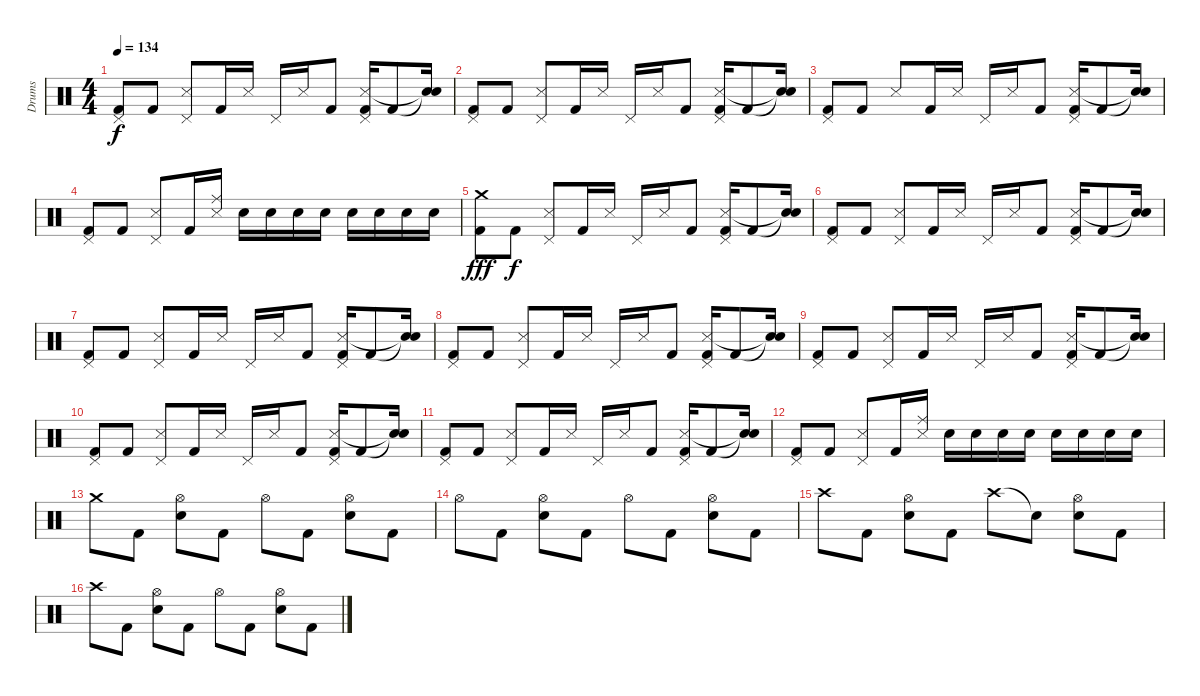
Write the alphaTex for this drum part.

\track ("Drums" "Drums") {instrument percussion}
\staff {score}
\articulation defaults
\ts (4 4)
\tempo 134
\clef neutral
\ks c
("Pedal Hi-Hat (hit)" "Kick (hit) 2").8{dy f} "Kick (hit) 2".8 ("Snare (side stick) 3" "Pedal Hi-Hat (hit)").8 "Kick (hit) 2".16 "Snare (side stick) 3".16 "Pedal Hi-Hat (hit)".16 "Snare (side stick) 3".16 "Kick (hit) 2".8 ("Pedal Hi-Hat (hit)" "Snare (side stick) 3" "Kick (hit) 2").16 "Kick (hit) 2".8 ("Snare (hit)"{t} "Snare (hit)"{t}).16 |
("Pedal Hi-Hat (hit)" "Kick (hit) 2").8 "Kick (hit) 2".8 ("Snare (side stick) 3" "Pedal Hi-Hat (hit)").8 "Kick (hit) 2".16 "Snare (side stick) 3".16 "Pedal Hi-Hat (hit)".16 "Snare (side stick) 3".16 "Kick (hit) 2".8 ("Pedal Hi-Hat (hit)" "Snare (side stick) 3" "Kick (hit) 2").16 "Kick (hit) 2".8 ("Snare (hit)"{t} "Snare (hit)"{t}).16 |
("Pedal Hi-Hat (hit)" "Kick (hit) 2").8 "Kick (hit) 2".8 "Snare (side stick) 3".8 "Kick (hit) 2".16 "Snare (side stick) 3".16 "Pedal Hi-Hat (hit)".16 "Snare (side stick) 3".16 "Kick (hit) 2".8 ("Pedal Hi-Hat (hit)" "Snare (side stick) 3" "Kick (hit) 2").16 "Kick (hit) 2".8 ("Snare (hit)"{t} "Snare (hit)"{t}).16 |
("Pedal Hi-Hat (hit)" "Kick (hit) 2").8 "Kick (hit) 2".8 ("Snare (side stick) 3" "Pedal Hi-Hat (hit)").8 "Kick (hit) 2".16 ("Snare (side stick) 3" "Ride (middle)").16 "Electric Snare (hit)".16 "Electric Snare (hit)".16 "Electric Snare (hit)".16 "Electric Snare (hit)".16 "Electric Snare (hit)".16 "Electric Snare (hit)".16 "Electric Snare (hit)".16 "Electric Snare (hit)".16 |
("Crash medium (hit)" "Kick (hit) 2").8{dy fff} "Kick (hit) 2".8{dy f} ("Snare (side stick) 3" "Pedal Hi-Hat (hit)").8 "Kick (hit) 2".16 "Snare (side stick) 3".16 "Pedal Hi-Hat (hit)".16 "Snare (side stick) 3".16 "Kick (hit) 2".8 ("Pedal Hi-Hat (hit)" "Snare (side stick) 3" "Kick (hit) 2").16 "Kick (hit) 2".8 ("Snare (hit)"{t} "Snare (hit)"{t}).16 |
("Pedal Hi-Hat (hit)" "Kick (hit) 2").8 "Kick (hit) 2".8 ("Snare (side stick) 3" "Pedal Hi-Hat (hit)").8 "Kick (hit) 2".16 "Snare (side stick) 3".16 "Pedal Hi-Hat (hit)".16 "Snare (side stick) 3".16 "Kick (hit) 2".8 ("Pedal Hi-Hat (hit)" "Snare (side stick) 3" "Kick (hit) 2").16 "Kick (hit) 2".8 ("Snare (hit)"{t} "Snare (hit)"{t}).16 |
("Pedal Hi-Hat (hit)" "Kick (hit) 2").8 "Kick (hit) 2".8 ("Snare (side stick) 3" "Pedal Hi-Hat (hit)").8 "Kick (hit) 2".16 "Snare (side stick) 3".16 "Pedal Hi-Hat (hit)".16 "Snare (side stick) 3".16 "Kick (hit) 2".8 ("Pedal Hi-Hat (hit)" "Snare (side stick) 3" "Kick (hit) 2").16 "Kick (hit) 2".8 ("Snare (hit)"{t} "Snare (hit)"{t}).16 |
("Pedal Hi-Hat (hit)" "Kick (hit) 2").8 "Kick (hit) 2".8 ("Snare (side stick) 3" "Pedal Hi-Hat (hit)").8 "Kick (hit) 2".16 "Snare (side stick) 3".16 "Pedal Hi-Hat (hit)".16 "Snare (side stick) 3".16 "Kick (hit) 2".8 ("Pedal Hi-Hat (hit)" "Snare (side stick) 3" "Kick (hit) 2").16 "Kick (hit) 2".8 ("Snare (hit)"{t} "Snare (hit)"{t}).16 |
("Pedal Hi-Hat (hit)" "Kick (hit) 2").8 "Kick (hit) 2".8 ("Snare (side stick) 3" "Pedal Hi-Hat (hit)").8 "Kick (hit) 2".16 "Snare (side stick) 3".16 "Pedal Hi-Hat (hit)".16 "Snare (side stick) 3".16 "Kick (hit) 2".8 ("Pedal Hi-Hat (hit)" "Snare (side stick) 3" "Kick (hit) 2").16 "Kick (hit) 2".8 ("Snare (hit)"{t} "Snare (hit)"{t}).16 |
("Pedal Hi-Hat (hit)" "Kick (hit) 2").8 "Kick (hit) 2".8 ("Snare (side stick) 3" "Pedal Hi-Hat (hit)").8 "Kick (hit) 2".16 "Snare (side stick) 3".16 "Pedal Hi-Hat (hit)".16 "Snare (side stick) 3".16 "Kick (hit) 2".8 ("Pedal Hi-Hat (hit)" "Snare (side stick) 3" "Kick (hit) 2").16 "Kick (hit) 2".8 ("Snare (hit)"{t} "Snare (hit)"{t}).16 |
("Pedal Hi-Hat (hit)" "Kick (hit) 2").8 "Kick (hit) 2".8 ("Snare (side stick) 3" "Pedal Hi-Hat (hit)").8 "Kick (hit) 2".16 "Snare (side stick) 3".16 "Pedal Hi-Hat (hit)".16 "Snare (side stick) 3".16 "Kick (hit) 2".8 ("Pedal Hi-Hat (hit)" "Snare (side stick) 3" "Kick (hit) 2").16 "Kick (hit) 2".8 ("Snare (hit)"{t} "Snare (hit)"{t}).16 |
("Pedal Hi-Hat (hit)" "Kick (hit) 2").8 "Kick (hit) 2".8 ("Snare (side stick) 3" "Pedal Hi-Hat (hit)").8 "Kick (hit) 2".16 ("Snare (side stick) 3" "Ride (middle)").16 "Electric Snare (hit)".16 "Electric Snare (hit)".16 "Electric Snare (hit)".16 "Electric Snare (hit)".16 "Electric Snare (hit)".16 "Electric Snare (hit)".16 "Electric Snare (hit)".16 "Electric Snare (hit)".16 |
"Crash medium (hit)".8 "Kick (hit) 2".8 ("Hi-Hat (open)" "Electric Snare (hit)").8 "Kick (hit) 2".8 "Hi-Hat (open)".8 "Kick (hit) 2".8 ("Hi-Hat (open)" "Electric Snare (hit)").8 "Kick (hit) 2".8 |
"Hi-Hat (open)".8 "Kick (hit) 2".8 ("Hi-Hat (open)" "Electric Snare (hit)").8 "Kick (hit) 2".8 "Hi-Hat (open)".8 "Kick (hit) 2".8 ("Hi-Hat (open)" "Electric Snare (hit)").8 "Kick (hit) 2".8 |
"Crash high (hit)".8 "Kick (hit) 2".8 ("Hi-Hat (open)" "Electric Snare (hit)").8 "Kick (hit) 2".8 "Crash high (hit)".8 "Snare (hit)"{t}.8 ("Hi-Hat (open)" "Electric Snare (hit)").8 "Kick (hit) 2".8 |
"Crash high (hit)".8 "Kick (hit) 2".8 ("Hi-Hat (open)" "Electric Snare (hit)").8 "Kick (hit) 2".8 "Hi-Hat (open)".8 "Kick (hit) 2".8 ("Hi-Hat (open)" "Electric Snare (hit)").8 "Kick (hit) 2".8
